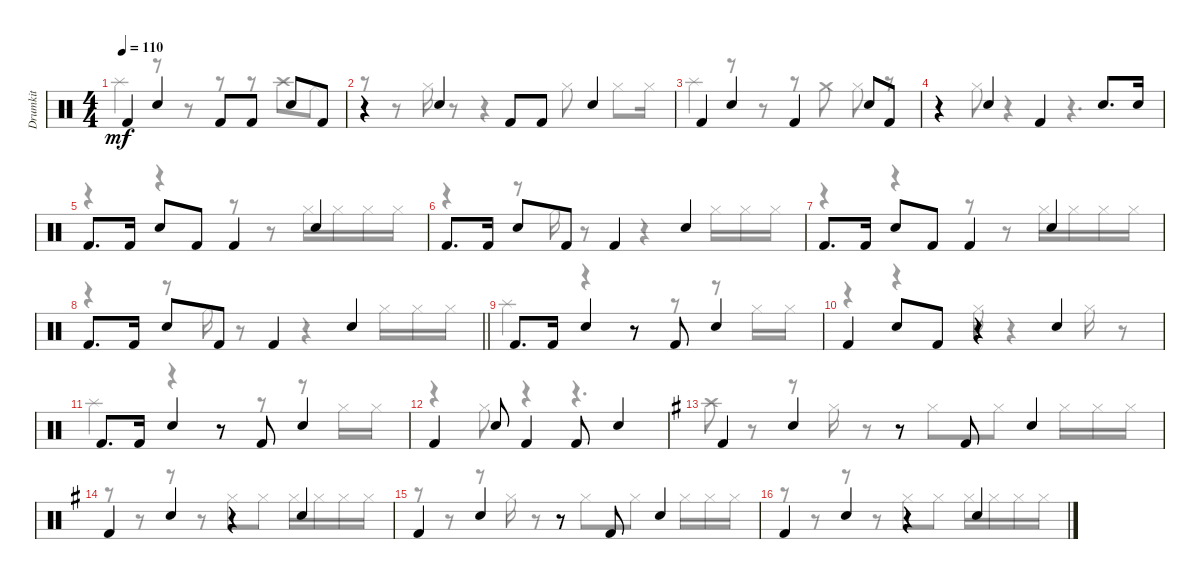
\track ("Drumkit" "Drumkit") {instrument percussion}
\staff {score}
\articulation defaults
\voice
\ts (4 4)
\tempo 110
\clef neutral
\ks c "Kick (hit) 2".4{dy mf} "Snare (hit) 2".4 "Kick (hit) 2".8 "Kick (hit) 2".8 "Snare (hit) 2".8 "Kick (hit) 2".8
|
r.4 "Snare (hit) 2".4 "Kick (hit) 2".8 "Kick (hit) 2".8 "Snare (hit) 2".4 |
"Kick (hit) 2".4 "Snare (hit) 2".4 "Kick (hit) 2".4 "Snare (hit) 2".8 "Kick (hit) 2".8 |
r.4 "Snare (hit) 2".4 "Kick (hit) 2".4 "Snare (hit) 2".8{d} "Snare (hit) 2".16 |
"Kick (hit) 2".8{d} "Kick (hit) 2".16 "Snare (hit) 2".8 "Kick (hit) 2".8 "Kick (hit) 2".4 "Snare (hit) 2".4 |
"Kick (hit) 2".8{d} "Kick (hit) 2".16 "Snare (hit) 2".8 "Kick (hit) 2".8 "Kick (hit) 2".4 "Snare (hit) 2".4 |
"Kick (hit) 2".8{d} "Kick (hit) 2".16 "Snare (hit) 2".8 "Kick (hit) 2".8 "Kick (hit) 2".4 "Snare (hit) 2".4 |
\barLineRight lightlight "Kick (hit) 2".8{d} "Kick (hit) 2".16 "Snare (hit) 2".8 "Kick (hit) 2".8 "Kick (hit) 2".4 "Snare (hit) 2".4
|
"Kick (hit) 2".8{d} "Kick (hit) 2".16 "Snare (hit) 2".4 r.8 "Kick (hit) 2".8 "Snare (hit) 2".4 |
"Kick (hit) 2".4 "Snare (hit) 2".8 "Kick (hit) 2".8 r.4 "Snare (hit) 2".4 |
"Kick (hit) 2".8{d} "Kick (hit) 2".16 "Snare (hit) 2".4 r.8 "Kick (hit) 2".8 "Snare (hit) 2".4 |
"Kick (hit) 2".4 "Snare (hit) 2".8 "Kick (hit) 2".4 "Kick (hit) 2".8 "Snare (hit) 2".4 |
\ks g "Kick (hit) 2".4 "Snare (hit) 2".4
r.8 "Kick (hit) 2".8 "Snare (hit) 2".4 |
"Kick (hit) 2".4 "Snare (hit) 2".4 r.4 "Snare (hit) 2".4 |
"Kick (hit) 2".4 "Snare (hit) 2".4 r.8 "Kick (hit) 2".8 "Snare (hit) 2".4 |
"Kick (hit) 2".4 "Snare (hit) 2".4 r.4 "Snare (hit) 2".4
\voice
\clef neutral
\ottava regular
\simile none
\ks c "Splash (hit)".4{dy mf}
r.8 r.8 r.8 r.8 "Crash high (hit)".8 "Hi-Hat (closed)".8 |
r.8 r.8 "Hi-Hat (closed)".16 r.8 r.4 "Hi-Hat (closed)".8 "Hi-Hat (closed)".8 "Hi-Hat (closed)".16 |
"Splash (hit)".4 r.8 r.8 r.8 "Crash medium (hit)".8 "Hi-Hat (closed)".8 r.8 |
r.4 "Hi-Hat (closed)".8 r.4 r.4{d} |
r.4 r.4 r.8 r.8 "Hi-Hat (closed)".16 "Hi-Hat (closed)".16 "Hi-Hat (closed)".16 "Hi-Hat (closed)".16 |
r.4 r.8 "Hi-Hat (closed)".16 r.8 r.4 "Hi-Hat (closed)".16 "Hi-Hat (closed)".16 "Hi-Hat (closed)".16 |
r.4 r.4 r.8 r.8 "Hi-Hat (closed)".16 "Hi-Hat (closed)".16 "Hi-Hat (closed)".16 "Hi-Hat (closed)".16 |
\barLineRight lightlight
r.4 r.8 "Hi-Hat (closed)".16 r.8 r.4 "Hi-Hat (closed)".16 "Hi-Hat (closed)".16 "Hi-Hat (closed)".16 |
"Splash (hit)".4 r.4 r.8 r.8 r.8 "Hi-Hat (closed)".16 "Hi-Hat (closed)".16 |
r.4 r.4 "Hi-Hat (closed)".16 r.4 "Hi-Hat (closed)".16 r.8 |
"Splash (hit)".4 r.4 r.8 r.8 r.8 "Hi-Hat (closed)".16 "Hi-Hat (closed)".16 |
r.4 "Hi-Hat (closed)".8 r.4 r.4{d} |
\ks g "Crash high (hit)".8
r.8 r.8 "Hi-Hat (closed)".16 r.8 "Hi-Hat (closed)".8 "Hi-Hat (closed)".8 "Hi-Hat (closed)".16 "Hi-Hat (closed)".16 "Hi-Hat (closed)".16 |
r.8 r.8 r.8 r.8 "Hi-Hat (closed)".8 "Hi-Hat (closed)".8 "Hi-Hat (closed)".16 "Hi-Hat (closed)".16 "Hi-Hat (closed)".16 "Hi-Hat (closed)".16 |
r.8 r.8 r.8 "Hi-Hat (closed)".16 r.8 "Hi-Hat (closed)".8 "Hi-Hat (closed)".8 "Hi-Hat (closed)".16 "Hi-Hat (closed)".16 "Hi-Hat (closed)".16 |
r.8 r.8 r.8 r.8 "Hi-Hat (closed)".8 "Hi-Hat (closed)".8 "Hi-Hat (closed)".16 "Hi-Hat (closed)".16 "Hi-Hat (closed)".16 "Hi-Hat (closed)".16
